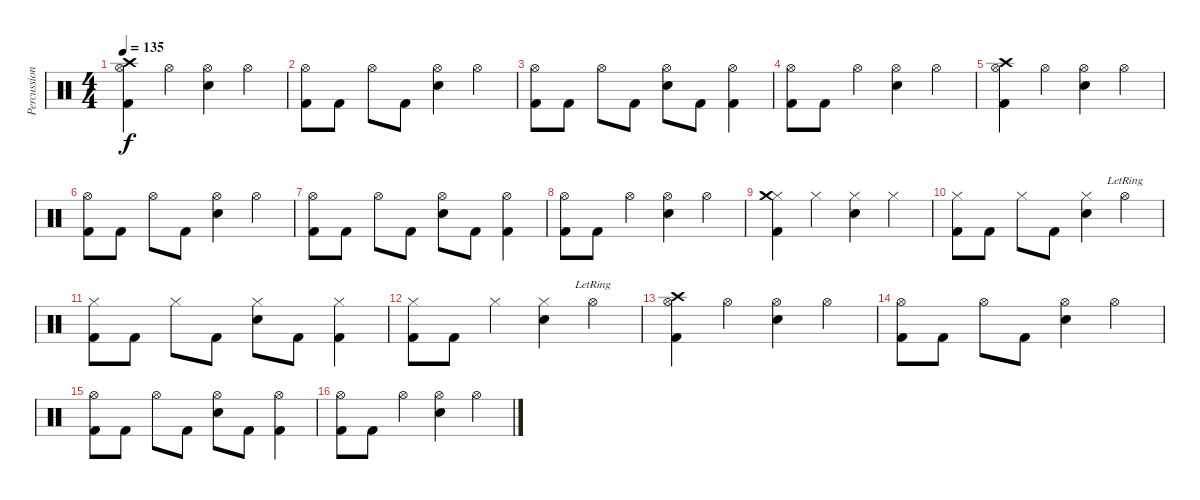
\track ("Percussion" "Percussion") {instrument percussion}
\staff {score}
\articulation defaults
\ts (4 4)
\tempo 135
\clef neutral
\ks c
("Kick (hit) 2" "Hi-Hat (open)" "Crash high (hit)").4{dy f} "Hi-Hat (open)".4 ("Electric Snare (hit)" "Hi-Hat (open)").4 "Hi-Hat (open)".4 |
("Kick (hit) 2" "Hi-Hat (open)").8 "Kick (hit) 2".8 "Hi-Hat (open)".8 "Kick (hit) 2".8 ("Electric Snare (hit)" "Hi-Hat (open)").4 "Hi-Hat (open)".4 |
("Kick (hit) 2" "Hi-Hat (open)").8 "Kick (hit) 2".8 "Hi-Hat (open)".8 "Kick (hit) 2".8 ("Electric Snare (hit)" "Hi-Hat (open)").8 "Kick (hit) 2".8 ("Kick (hit) 2" "Hi-Hat (open)").4 |
("Kick (hit) 2" "Hi-Hat (open)").8 "Kick (hit) 2".8 "Hi-Hat (open)".4 ("Electric Snare (hit)" "Hi-Hat (open)").4 "Hi-Hat (open)".4 |
("Kick (hit) 2" "Hi-Hat (open)" "Crash high (hit)").4 "Hi-Hat (open)".4 ("Electric Snare (hit)" "Hi-Hat (open)").4 "Hi-Hat (open)".4 |
("Kick (hit) 2" "Hi-Hat (open)").8 "Kick (hit) 2".8 "Hi-Hat (open)".8 "Kick (hit) 2".8 ("Electric Snare (hit)" "Hi-Hat (open)").4 "Hi-Hat (open)".4 |
("Kick (hit) 2" "Hi-Hat (open)").8 "Kick (hit) 2".8 "Hi-Hat (open)".8 "Kick (hit) 2".8 ("Electric Snare (hit)" "Hi-Hat (open)").8 "Kick (hit) 2".8 ("Kick (hit) 2" "Hi-Hat (open)").4 |
("Kick (hit) 2" "Hi-Hat (open)").8 "Kick (hit) 2".8 "Hi-Hat (open)".4 ("Electric Snare (hit)" "Hi-Hat (open)").4 "Hi-Hat (open)".4 |
("Kick (hit) 2" "Hi-Hat (closed)" "Crash medium (hit)").4 "Hi-Hat (closed)".4 ("Electric Snare (hit)" "Hi-Hat (closed)").4 "Hi-Hat (closed)".4 |
("Kick (hit) 2" "Hi-Hat (closed)").8 "Kick (hit) 2".8 "Hi-Hat (closed)".8 "Kick (hit) 2".8 ("Electric Snare (hit)" "Hi-Hat (closed)").4 "Hi-Hat (open)"{lr}.4 |
("Kick (hit) 2" "Hi-Hat (closed)").8 "Kick (hit) 2".8 "Hi-Hat (closed)".8 "Kick (hit) 2".8 ("Electric Snare (hit)" "Hi-Hat (closed)").8 "Kick (hit) 2".8 ("Kick (hit) 2" "Hi-Hat (closed)").4 |
("Kick (hit) 2" "Hi-Hat (closed)").8 "Kick (hit) 2".8 "Hi-Hat (closed)".4 ("Electric Snare (hit)" "Hi-Hat (closed)").4 "Hi-Hat (open)"{lr}.4 |
("Kick (hit) 2" "Hi-Hat (open)" "Crash high (hit)").4 "Hi-Hat (open)".4 ("Electric Snare (hit)" "Hi-Hat (open)").4 "Hi-Hat (open)".4 |
("Kick (hit) 2" "Hi-Hat (open)").8 "Kick (hit) 2".8 "Hi-Hat (open)".8 "Kick (hit) 2".8 ("Electric Snare (hit)" "Hi-Hat (open)").4 "Hi-Hat (open)".4 |
("Kick (hit) 2" "Hi-Hat (open)").8 "Kick (hit) 2".8 "Hi-Hat (open)".8 "Kick (hit) 2".8 ("Electric Snare (hit)" "Hi-Hat (open)").8 "Kick (hit) 2".8 ("Kick (hit) 2" "Hi-Hat (open)").4 |
("Kick (hit) 2" "Hi-Hat (open)").8 "Kick (hit) 2".8 "Hi-Hat (open)".4 ("Electric Snare (hit)" "Hi-Hat (open)").4 "Hi-Hat (open)".4
